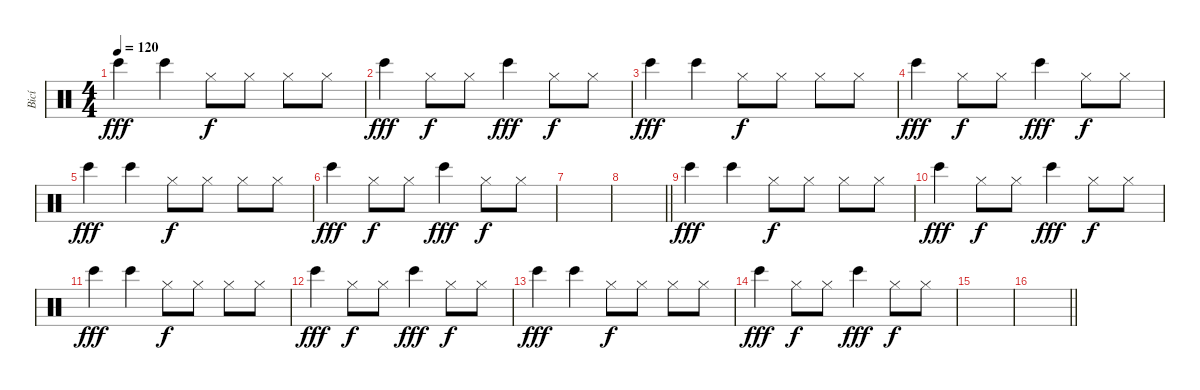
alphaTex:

\track ("Bicí" "Bicí") {instrument percussion}
\staff {score}
\articulation defaults
\ts (4 4)
\tempo 120
\clef neutral
\ks c "Bongo High (hit)".4{dy fff} "Bongo High (hit)".4 "Hi-Hat (closed)".8{dy f} "Hi-Hat (closed)".8 "Hi-Hat (closed)".8 "Hi-Hat (closed)".8
|
"Bongo High (hit)".4{dy fff} "Hi-Hat (closed)".8{dy f} "Hi-Hat (closed)".8 "Bongo High (hit)".4{dy fff} "Hi-Hat (closed)".8{dy f} "Hi-Hat (closed)".8 |
"Bongo High (hit)".4{dy fff} "Bongo High (hit)".4 "Hi-Hat (closed)".8{dy f} "Hi-Hat (closed)".8 "Hi-Hat (closed)".8 "Hi-Hat (closed)".8 |
"Bongo High (hit)".4{dy fff} "Hi-Hat (closed)".8{dy f} "Hi-Hat (closed)".8 "Bongo High (hit)".4{dy fff} "Hi-Hat (closed)".8{dy f} "Hi-Hat (closed)".8 |
"Bongo High (hit)".4{dy fff} "Bongo High (hit)".4 "Hi-Hat (closed)".8{dy f} "Hi-Hat (closed)".8 "Hi-Hat (closed)".8 "Hi-Hat (closed)".8 |
"Bongo High (hit)".4{dy fff} "Hi-Hat (closed)".8{dy f} "Hi-Hat (closed)".8 "Bongo High (hit)".4{dy fff} "Hi-Hat (closed)".8{dy f} "Hi-Hat (closed)".8 |
|
\barLineRight lightlight
|
"Bongo High (hit)".4{dy fff} "Bongo High (hit)".4 "Hi-Hat (closed)".8{dy f} "Hi-Hat (closed)".8 "Hi-Hat (closed)".8 "Hi-Hat (closed)".8 |
"Bongo High (hit)".4{dy fff} "Hi-Hat (closed)".8{dy f} "Hi-Hat (closed)".8 "Bongo High (hit)".4{dy fff} "Hi-Hat (closed)".8{dy f} "Hi-Hat (closed)".8 |
"Bongo High (hit)".4{dy fff} "Bongo High (hit)".4 "Hi-Hat (closed)".8{dy f} "Hi-Hat (closed)".8 "Hi-Hat (closed)".8 "Hi-Hat (closed)".8 |
"Bongo High (hit)".4{dy fff} "Hi-Hat (closed)".8{dy f} "Hi-Hat (closed)".8 "Bongo High (hit)".4{dy fff} "Hi-Hat (closed)".8{dy f} "Hi-Hat (closed)".8 |
"Bongo High (hit)".4{dy fff} "Bongo High (hit)".4 "Hi-Hat (closed)".8{dy f} "Hi-Hat (closed)".8 "Hi-Hat (closed)".8 "Hi-Hat (closed)".8 |
"Bongo High (hit)".4{dy fff} "Hi-Hat (closed)".8{dy f} "Hi-Hat (closed)".8 "Bongo High (hit)".4{dy fff} "Hi-Hat (closed)".8{dy f} "Hi-Hat (closed)".8 |
|
\barLineRight lightlight
